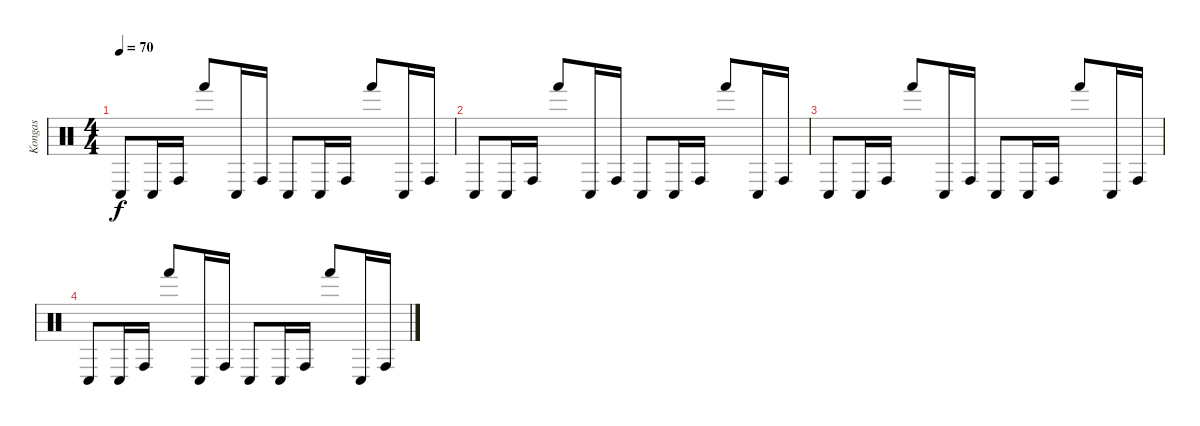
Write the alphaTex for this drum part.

\track ("Kongas" "Kongas") {instrument percussion}
\staff {score}
\articulation defaults
\ts (4 4)
\tempo 70
\clef neutral
\ks c "Conga low (hit)".8{dy f volume 13} "Conga low (hit)".16 "Conga high (hit)".16 "Hand (hit)".8 "Conga low (hit)".16 "Conga high (hit)".16 "Conga low (hit)".8{volume 10} "Conga low (hit)".16 "Conga high (hit)".16 "Hand (hit)".8 "Conga low (hit)".16 "Conga high (hit)".16
|
"Conga low (hit)".8{volume 8} "Conga low (hit)".16 "Conga high (hit)".16 "Hand (hit)".8 "Conga low (hit)".16 "Conga high (hit)".16 "Conga low (hit)".8{volume 6} "Conga low (hit)".16 "Conga high (hit)".16 "Hand (hit)".8 "Conga low (hit)".16 "Conga high (hit)".16 |
"Conga low (hit)".8{volume 4} "Conga low (hit)".16 "Conga high (hit)".16 "Hand (hit)".8 "Conga low (hit)".16 "Conga high (hit)".16 "Conga low (hit)".8 "Conga low (hit)".16 "Conga high (hit)".16 "Hand (hit)".8 "Conga low (hit)".16 "Conga high (hit)".16 |
"Conga low (hit)".8{volume 3} "Conga low (hit)".16 "Conga high (hit)".16 "Hand (hit)".8{volume 2} "Conga low (hit)".16 "Conga high (hit)".16 "Conga low (hit)".8{volume 1} "Conga low (hit)".16 "Conga high (hit)".16 "Hand (hit)".8{volume 0} "Conga low (hit)".16 "Conga high (hit)".16
